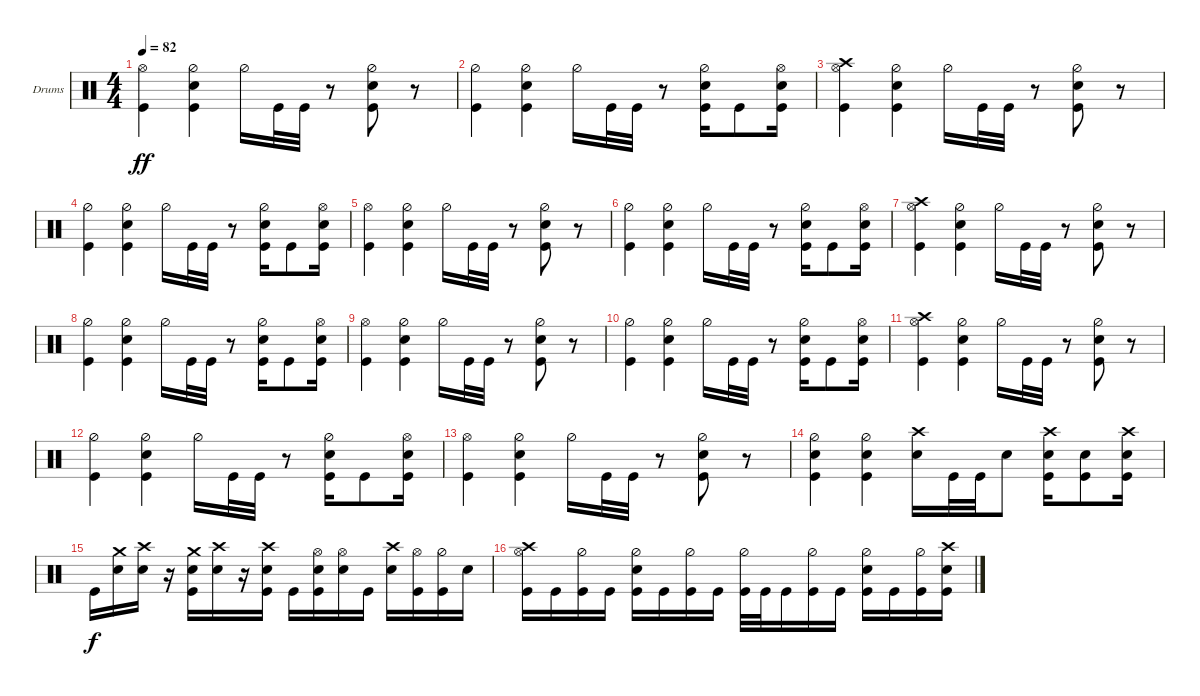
\bracketExtendMode groupsimilarinstruments
\firstSystemTrackNameOrientation horizontal
\otherSystemsTrackNameOrientation horizontal
\track ("Kaleb - Drums" "Drums") {instrument percussion}
\staff {score}
\articulation defaults
\ts (4 4)
\tempo 82
\clef neutral
\ks c
("Kick (hit)" "Hi-Hat (open)").4{dy ff} ("Kick (hit)" "Snare (hit) 2" "Hi-Hat (half)").4 "Hi-Hat (half)".16 "Kick (hit)".32 "Kick (hit)".32 r.8 ("Kick (hit)" "Snare (hit) 2" "Hi-Hat (half)").8 r.8 |
("Kick (hit)" "Hi-Hat (half)").4 ("Kick (hit)" "Snare (hit) 2" "Hi-Hat (half)").4 "Hi-Hat (half)".16 "Kick (hit)".32 "Kick (hit)".32 r.8 ("Kick (hit)" "Snare (hit) 2" "Hi-Hat (half)").16 "Kick (hit)".8 ("Kick (hit)" "Snare (hit) 2" "Hi-Hat (open)").16 |
("Kick (hit)" "Hi-Hat (open)" "Crash high (hit)").4 ("Kick (hit)" "Snare (hit) 2" "Hi-Hat (half)").4 "Hi-Hat (half)".16 "Kick (hit)".32 "Kick (hit)".32 r.8 ("Kick (hit)" "Snare (hit) 2" "Hi-Hat (half)").8 r.8 |
("Kick (hit)" "Hi-Hat (half)").4 ("Kick (hit)" "Snare (hit) 2" "Hi-Hat (half)").4 "Hi-Hat (half)".16 "Kick (hit)".32 "Kick (hit)".32 r.8 ("Kick (hit)" "Snare (hit) 2" "Hi-Hat (half)").16 "Kick (hit)".8 ("Kick (hit)" "Snare (hit) 2" "Hi-Hat (open)").16 |
("Kick (hit)" "Hi-Hat (open)").4 ("Kick (hit)" "Snare (hit) 2" "Hi-Hat (half)").4 "Hi-Hat (half)".16 "Kick (hit)".32 "Kick (hit)".32 r.8 ("Kick (hit)" "Snare (hit) 2" "Hi-Hat (half)").8 r.8 |
("Kick (hit)" "Hi-Hat (half)").4 ("Kick (hit)" "Snare (hit) 2" "Hi-Hat (half)").4 "Hi-Hat (half)".16 "Kick (hit)".32 "Kick (hit)".32 r.8 ("Kick (hit)" "Snare (hit) 2" "Hi-Hat (half)").16 "Kick (hit)".8 ("Kick (hit)" "Snare (hit) 2" "Hi-Hat (open)").16 |
("Kick (hit)" "Hi-Hat (open)" "Crash high (hit)").4 ("Kick (hit)" "Snare (hit) 2" "Hi-Hat (half)").4 "Hi-Hat (half)".16 "Kick (hit)".32 "Kick (hit)".32 r.8 ("Kick (hit)" "Snare (hit) 2" "Hi-Hat (half)").8 r.8 |
("Kick (hit)" "Hi-Hat (half)").4 ("Kick (hit)" "Snare (hit) 2" "Hi-Hat (half)").4 "Hi-Hat (half)".16 "Kick (hit)".32 "Kick (hit)".32 r.8 ("Kick (hit)" "Snare (hit) 2" "Hi-Hat (half)").16 "Kick (hit)".8 ("Kick (hit)" "Snare (hit) 2" "Hi-Hat (open)").16 |
("Kick (hit)" "Hi-Hat (open)").4 ("Kick (hit)" "Snare (hit) 2" "Hi-Hat (half)").4 "Hi-Hat (half)".16 "Kick (hit)".32 "Kick (hit)".32 r.8 ("Kick (hit)" "Snare (hit) 2" "Hi-Hat (half)").8 r.8 |
("Kick (hit)" "Hi-Hat (half)").4 ("Kick (hit)" "Snare (hit) 2" "Hi-Hat (half)").4 "Hi-Hat (half)".16 "Kick (hit)".32 "Kick (hit)".32 r.8 ("Kick (hit)" "Snare (hit) 2" "Hi-Hat (half)").16 "Kick (hit)".8 ("Kick (hit)" "Snare (hit) 2" "Hi-Hat (open)").16 |
("Kick (hit)" "Hi-Hat (open)" "Crash high (hit)").4 ("Kick (hit)" "Snare (hit) 2" "Hi-Hat (half)").4 "Hi-Hat (half)".16 "Kick (hit)".32 "Kick (hit)".32 r.8 ("Kick (hit)" "Snare (hit) 2" "Hi-Hat (half)").8 r.8 |
("Kick (hit)" "Hi-Hat (half)").4 ("Kick (hit)" "Snare (hit) 2" "Hi-Hat (half)").4 "Hi-Hat (half)".16 "Kick (hit)".32 "Kick (hit)".32 r.8 ("Kick (hit)" "Snare (hit) 2" "Hi-Hat (half)").16 "Kick (hit)".8 ("Kick (hit)" "Snare (hit) 2" "Hi-Hat (open)").16 |
("Kick (hit)" "Hi-Hat (open)").4 ("Kick (hit)" "Snare (hit) 2" "Hi-Hat (half)").4 "Hi-Hat (half)".16 "Kick (hit)".32 "Kick (hit)".32 r.8 ("Kick (hit)" "Snare (hit) 2" "Hi-Hat (half)").8 r.8 |
("Kick (hit)" "Hi-Hat (half)" "Snare (hit) 2").4 ("Kick (hit)" "Snare (hit) 2" "Hi-Hat (half)").4 ("Snare (hit) 2" "Crash high (hit)").16 "Kick (hit)".32 "Kick (hit)".32 "Snare (hit) 2".8 ("Kick (hit)" "Snare (hit) 2" "Crash high (hit)").16 ("Kick (hit)" "Snare (hit) 2").8 ("Kick (hit)" "Snare (hit) 2" "Crash high (hit)").16 |
"Kick (hit)".16{dy f} ("Snare (hit) 2" "Crash medium (hit)").16 ("Snare (hit) 2" "Crash high (hit)").16 r.16 ("Snare (hit) 2" "Crash medium (hit)" "Kick (hit)").16 ("Snare (hit) 2" "Crash high (hit)").16 r.16 ("Snare (hit) 2" "Crash high (hit)" "Kick (hit)").16 "Kick (hit)".16 ("Snare (hit) 2" "Hi-Hat (open)" "Kick (hit)").16 ("Snare (hit) 2" "Hi-Hat (open)").16 "Kick (hit)".16 ("Snare (hit) 2" "Crash high (hit)").16 ("Kick (hit)" "Hi-Hat (open)").16 ("Kick (hit)" "Hi-Hat (half)").16 "Snare (hit) 2".16 |
("Kick (hit)" "Hi-Hat (open)" "Crash high (hit)").16 "Kick (hit)".16 ("Kick (hit)" "Hi-Hat (half)").16 "Kick (hit)".16 ("Kick (hit)" "Snare (hit) 2" "Hi-Hat (half)").16 "Kick (hit)".16 ("Kick (hit)" "Hi-Hat (half)").16 "Kick (hit)".16 ("Kick (hit)" "Hi-Hat (half)").32 "Kick (hit)".32 "Kick (hit)".16 ("Kick (hit)" "Hi-Hat (half)").16 "Kick (hit)".16 ("Kick (hit)" "Snare (hit) 2" "Hi-Hat (half)").16 "Kick (hit)".16 ("Kick (hit)" "Hi-Hat (half)").16 ("Kick (hit)" "Snare (hit) 2" "Crash high (hit)").16
